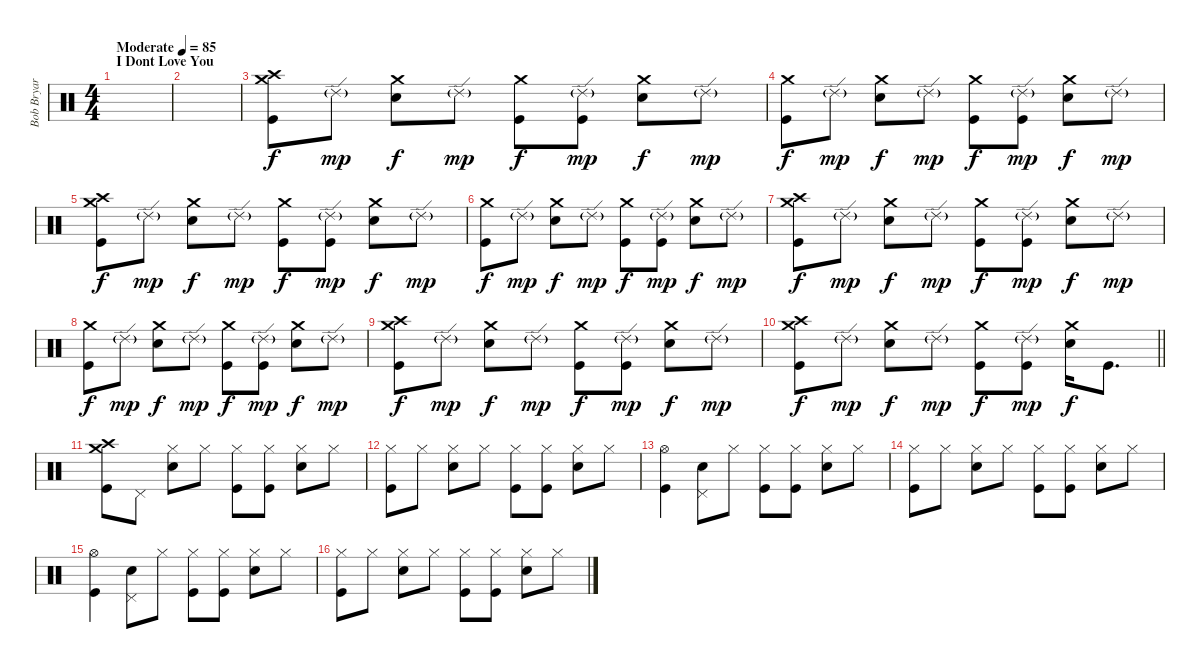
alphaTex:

\track ("Bob Bryar [Drums]" "Bob Bryar ") {instrument percussion}
\staff {score}
\articulation defaults
\ts (4 4)
\section ("" "I Dont Love You")
\tempo (85 "Moderate")
\clef neutral
\ks c
|
|
("Crash high (hit)" "Crash medium (hit)" "Kick (hit)").8 "Ride (edge) 2"{g}.8{dy mp} ("Crash medium (hit)" "Electric Snare (hit)").8{dy f} "Ride (edge) 2"{g}.8{dy mp} ("Crash medium (hit)" "Kick (hit)").8{dy f} ("Ride (edge) 2"{g} "Kick (hit)").8{dy mp} ("Crash medium (hit)" "Electric Snare (hit)").8{dy f} "Ride (edge) 2"{g}.8{dy mp} |
("Crash medium (hit)" "Kick (hit)").8{dy f} "Ride (edge) 2"{g}.8{dy mp} ("Crash medium (hit)" "Electric Snare (hit)").8{dy f} "Ride (edge) 2"{g}.8{dy mp} ("Crash medium (hit)" "Kick (hit)").8{dy f} ("Ride (edge) 2"{g} "Kick (hit)").8{dy mp} ("Crash medium (hit)" "Electric Snare (hit)").8{dy f} "Ride (edge) 2"{g}.8{dy mp} |
("Crash high (hit)" "Crash medium (hit)" "Kick (hit)").8{dy f} "Ride (edge) 2"{g}.8{dy mp} ("Crash medium (hit)" "Electric Snare (hit)").8{dy f} "Ride (edge) 2"{g}.8{dy mp} ("Crash medium (hit)" "Kick (hit)").8{dy f} ("Ride (edge) 2"{g} "Kick (hit)").8{dy mp} ("Crash medium (hit)" "Electric Snare (hit)").8{dy f} "Ride (edge) 2"{g}.8{dy mp} |
("Crash medium (hit)" "Kick (hit)").8{dy f} "Ride (edge) 2"{g}.8{dy mp} ("Crash medium (hit)" "Electric Snare (hit)").8{dy f} "Ride (edge) 2"{g}.8{dy mp} ("Crash medium (hit)" "Kick (hit)").8{dy f} ("Ride (edge) 2"{g} "Kick (hit)").8{dy mp} ("Crash medium (hit)" "Electric Snare (hit)").8{dy f} "Ride (edge) 2"{g}.8{dy mp} |
("Crash high (hit)" "Crash medium (hit)" "Kick (hit)").8{dy f} "Ride (edge) 2"{g}.8{dy mp} ("Crash medium (hit)" "Electric Snare (hit)").8{dy f} "Ride (edge) 2"{g}.8{dy mp} ("Crash medium (hit)" "Kick (hit)").8{dy f} ("Ride (edge) 2"{g} "Kick (hit)").8{dy mp} ("Crash medium (hit)" "Electric Snare (hit)").8{dy f} "Ride (edge) 2"{g}.8{dy mp} |
("Crash medium (hit)" "Kick (hit)").8{dy f} "Ride (edge) 2"{g}.8{dy mp} ("Crash medium (hit)" "Electric Snare (hit)").8{dy f} "Ride (edge) 2"{g}.8{dy mp} ("Crash medium (hit)" "Kick (hit)").8{dy f} ("Ride (edge) 2"{g} "Kick (hit)").8{dy mp} ("Crash medium (hit)" "Electric Snare (hit)").8{dy f} "Ride (edge) 2"{g}.8{dy mp} |
("Crash high (hit)" "Crash medium (hit)" "Kick (hit)").8{dy f} "Ride (edge) 2"{g}.8{dy mp} ("Crash medium (hit)" "Electric Snare (hit)").8{dy f} "Ride (edge) 2"{g}.8{dy mp} ("Crash medium (hit)" "Kick (hit)").8{dy f} ("Ride (edge) 2"{g} "Kick (hit)").8{dy mp} ("Crash medium (hit)" "Electric Snare (hit)").8{dy f} "Ride (edge) 2"{g}.8{dy mp} |
\barLineRight lightlight
("Crash high (hit)" "Crash medium (hit)" "Kick (hit)").8{dy f} "Ride (edge) 2"{g}.8{dy mp} ("Crash medium (hit)" "Electric Snare (hit)").8{dy f} "Ride (edge) 2"{g}.8{dy mp} ("Crash medium (hit)" "Kick (hit)").8{dy f} ("Ride (edge) 2"{g} "Kick (hit)").8{dy mp} ("Crash medium (hit)" "Electric Snare (hit)").16{dy f} "Kick (hit)".8{d} |
("Crash high (hit)" "Crash medium (hit)" "Kick (hit)").8 "Pedal Hi-Hat (hit)".8 ("Hi-Hat (closed)" "Electric Snare (hit)").8 "Hi-Hat (closed)".8 ("Hi-Hat (closed)" "Kick (hit)").8 ("Hi-Hat (closed)" "Kick (hit)").8 ("Hi-Hat (closed)" "Electric Snare (hit)").8 "Hi-Hat (closed)".8 |
("Hi-Hat (closed)" "Kick (hit)").8 "Hi-Hat (closed)".8 ("Hi-Hat (closed)" "Electric Snare (hit)").8 "Hi-Hat (closed)".8 ("Hi-Hat (closed)" "Kick (hit)").8 ("Hi-Hat (closed)" "Kick (hit)").8 ("Hi-Hat (closed)" "Electric Snare (hit)").8 "Hi-Hat (closed)".8 |
("Hi-Hat (open)" "Kick (hit)").4 ("Pedal Hi-Hat (hit)" "Electric Snare (hit)").8 "Hi-Hat (closed)".8 ("Hi-Hat (closed)" "Kick (hit)").8 ("Hi-Hat (closed)" "Kick (hit)").8 ("Hi-Hat (closed)" "Electric Snare (hit)").8 "Hi-Hat (closed)".8 |
("Hi-Hat (closed)" "Kick (hit)").8 "Hi-Hat (closed)".8 ("Hi-Hat (closed)" "Electric Snare (hit)").8 "Hi-Hat (closed)".8 ("Hi-Hat (closed)" "Kick (hit)").8 ("Hi-Hat (closed)" "Kick (hit)").8 ("Hi-Hat (closed)" "Electric Snare (hit)").8 "Hi-Hat (closed)".8 |
("Hi-Hat (open)" "Kick (hit)").4 ("Pedal Hi-Hat (hit)" "Electric Snare (hit)").8 "Hi-Hat (closed)".8 ("Hi-Hat (closed)" "Kick (hit)").8 ("Hi-Hat (closed)" "Kick (hit)").8 ("Hi-Hat (closed)" "Electric Snare (hit)").8 "Hi-Hat (closed)".8 |
("Hi-Hat (closed)" "Kick (hit)").8 "Hi-Hat (closed)".8 ("Hi-Hat (closed)" "Electric Snare (hit)").8 "Hi-Hat (closed)".8 ("Hi-Hat (closed)" "Kick (hit)").8 ("Hi-Hat (closed)" "Kick (hit)").8 ("Hi-Hat (closed)" "Electric Snare (hit)").8 "Hi-Hat (closed)".8
